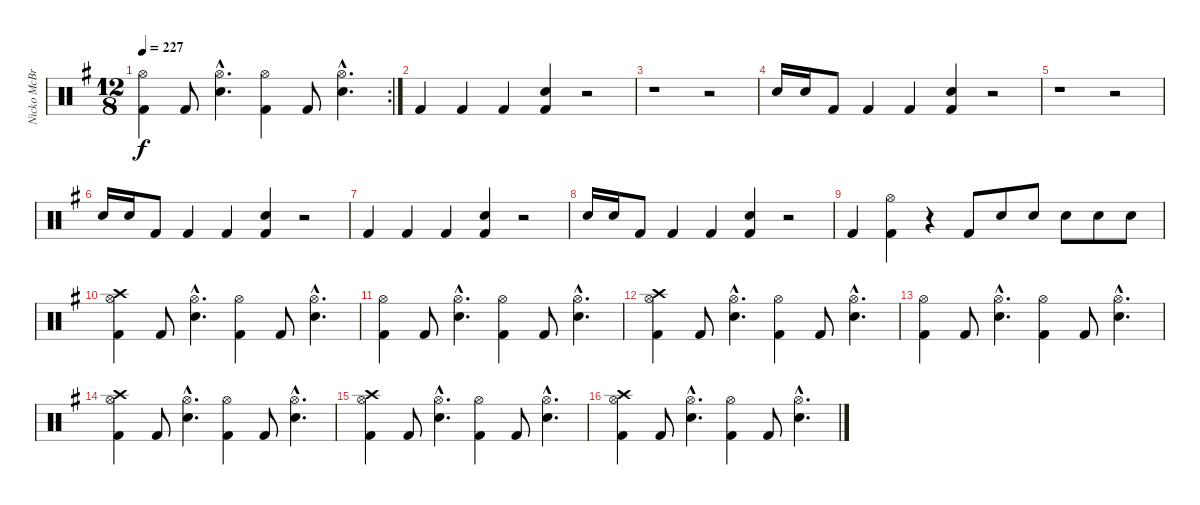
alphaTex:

\track ("Nicko McBrain" "Nicko McBr") {instrument percussion}
\staff {score}
\articulation defaults
\rc 2
\ts (12 8)
\tempo 227
\clef neutral
\ks g
("Kick (hit) 2" "Hi-Hat (open)").4{dy f} "Kick (hit) 2".8 ("Snare (hit) 2"{hac} "Hi-Hat (open)"{hac}).4{d} ("Kick (hit) 2" "Hi-Hat (open)").4 "Kick (hit) 2".8 ("Snare (hit) 2"{hac} "Hi-Hat (open)"{hac}).4{d} |
"Kick (hit) 2".4 "Kick (hit) 2".4 "Kick (hit) 2".4 ("Kick (hit) 2" "Snare (hit) 2").4 r.2 |
r.1 r.2 |
"Snare (hit) 2".16 "Snare (hit) 2".16 "Kick (hit) 2".8 "Kick (hit) 2".4 "Kick (hit) 2".4 ("Kick (hit) 2" "Snare (hit) 2").4 r.2 |
r.1 r.2 |
"Snare (hit) 2".16 "Snare (hit) 2".16 "Kick (hit) 2".8 "Kick (hit) 2".4 "Kick (hit) 2".4 ("Kick (hit) 2" "Snare (hit) 2").4 r.2 |
"Kick (hit) 2".4 "Kick (hit) 2".4 "Kick (hit) 2".4 ("Kick (hit) 2" "Snare (hit) 2").4 r.2 |
"Snare (hit) 2".16 "Snare (hit) 2".16 "Kick (hit) 2".8 "Kick (hit) 2".4 "Kick (hit) 2".4 ("Kick (hit) 2" "Snare (hit) 2").4 r.2 |
"Kick (hit) 2".4 ("Kick (hit) 2" "Hi-Hat (open)").4 r.4 "Kick (hit) 2".8 "Snare (hit) 2".8 "Snare (hit) 2".8 "Snare (hit) 2".8 "Snare (hit) 2".8 "Snare (hit) 2".8 |
("Kick (hit) 2" "Hi-Hat (open)" "Crash high (hit)").4 "Kick (hit) 2".8 ("Snare (hit) 2"{hac} "Hi-Hat (open)"{hac}).4{d} ("Kick (hit) 2" "Hi-Hat (open)").4 "Kick (hit) 2".8 ("Snare (hit) 2"{hac} "Hi-Hat (open)"{hac}).4{d} |
("Kick (hit) 2" "Hi-Hat (open)").4 "Kick (hit) 2".8 ("Snare (hit) 2"{hac} "Hi-Hat (open)"{hac}).4{d} ("Kick (hit) 2" "Hi-Hat (open)").4 "Kick (hit) 2".8 ("Snare (hit) 2"{hac} "Hi-Hat (open)"{hac}).4{d} |
("Kick (hit) 2" "Hi-Hat (open)" "Crash high (hit)").4 "Kick (hit) 2".8 ("Snare (hit) 2"{hac} "Hi-Hat (open)"{hac}).4{d} ("Kick (hit) 2" "Hi-Hat (open)").4 "Kick (hit) 2".8 ("Snare (hit) 2"{hac} "Hi-Hat (open)"{hac}).4{d} |
("Kick (hit) 2" "Hi-Hat (open)").4 "Kick (hit) 2".8 ("Snare (hit) 2"{hac} "Hi-Hat (open)"{hac}).4{d} ("Kick (hit) 2" "Hi-Hat (open)").4 "Kick (hit) 2".8 ("Snare (hit) 2"{hac} "Hi-Hat (open)"{hac}).4{d} |
("Kick (hit) 2" "Hi-Hat (open)" "Crash high (hit)").4 "Kick (hit) 2".8 ("Snare (hit) 2"{hac} "Hi-Hat (open)"{hac}).4{d} ("Kick (hit) 2" "Hi-Hat (open)").4 "Kick (hit) 2".8 ("Snare (hit) 2"{hac} "Hi-Hat (open)"{hac}).4{d} |
("Kick (hit) 2" "Hi-Hat (open)" "Crash high (hit)").4 "Kick (hit) 2".8 ("Snare (hit) 2"{hac} "Hi-Hat (open)"{hac}).4{d} ("Kick (hit) 2" "Hi-Hat (open)").4 "Kick (hit) 2".8 ("Snare (hit) 2"{hac} "Hi-Hat (open)"{hac}).4{d} |
("Kick (hit) 2" "Hi-Hat (open)" "Crash high (hit)").4 "Kick (hit) 2".8 ("Snare (hit) 2"{hac} "Hi-Hat (open)"{hac}).4{d} ("Kick (hit) 2" "Hi-Hat (open)").4 "Kick (hit) 2".8 ("Snare (hit) 2"{hac} "Hi-Hat (open)"{hac}).4{d}
